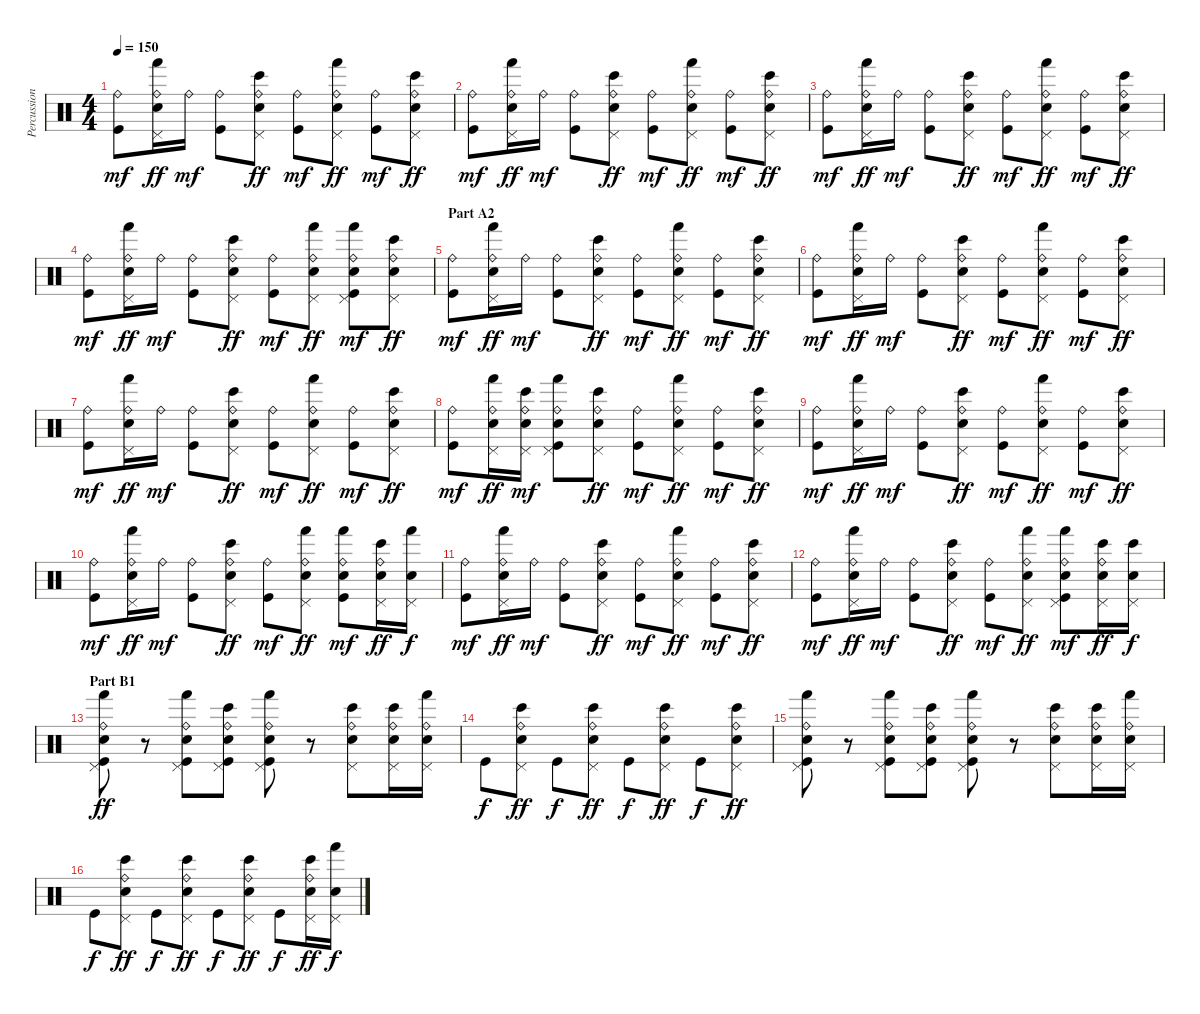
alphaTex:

\track ("Percussion" "Percussion") {instrument percussion}
\staff {score}
\articulation defaults
\ts (4 4)
\tempo 150
\clef neutral
\ks c
("Ride (bell)" "Kick (hit)").8{dy mf} ("Ride (bell)" "Pedal Hi-Hat (hit)" "Hand (hit)" "Electric Snare (hit)").16{dy ff} "Ride (bell)".16{dy mf} ("Ride (bell)" "Kick (hit)").8 ("Ride (bell)" "Pedal Hi-Hat (hit)" "Bongo High (hit)" "Electric Snare (hit)").8{dy ff} ("Ride (bell)" "Kick (hit)").8{dy mf} ("Ride (bell)" "Pedal Hi-Hat (hit)" "Hand (hit)" "Electric Snare (hit)").8{dy ff} ("Ride (bell)" "Kick (hit)").8{dy mf} ("Ride (bell)" "Pedal Hi-Hat (hit)" "Bongo High (hit)" "Electric Snare (hit)").8{dy ff} |
("Ride (bell)" "Kick (hit)").8{dy mf} ("Ride (bell)" "Pedal Hi-Hat (hit)" "Hand (hit)" "Electric Snare (hit)").16{dy ff} "Ride (bell)".16{dy mf} ("Ride (bell)" "Kick (hit)").8 ("Ride (bell)" "Pedal Hi-Hat (hit)" "Bongo High (hit)" "Electric Snare (hit)").8{dy ff} ("Ride (bell)" "Kick (hit)").8{dy mf} ("Ride (bell)" "Pedal Hi-Hat (hit)" "Hand (hit)" "Electric Snare (hit)").8{dy ff} ("Ride (bell)" "Kick (hit)").8{dy mf} ("Ride (bell)" "Pedal Hi-Hat (hit)" "Bongo High (hit)" "Electric Snare (hit)").8{dy ff} |
("Ride (bell)" "Kick (hit)").8{dy mf} ("Ride (bell)" "Pedal Hi-Hat (hit)" "Hand (hit)" "Electric Snare (hit)").16{dy ff} "Ride (bell)".16{dy mf} ("Ride (bell)" "Kick (hit)").8 ("Ride (bell)" "Pedal Hi-Hat (hit)" "Bongo High (hit)" "Electric Snare (hit)").8{dy ff} ("Ride (bell)" "Kick (hit)").8{dy mf} ("Ride (bell)" "Pedal Hi-Hat (hit)" "Hand (hit)" "Electric Snare (hit)").8{dy ff} ("Ride (bell)" "Kick (hit)").8{dy mf} ("Ride (bell)" "Pedal Hi-Hat (hit)" "Bongo High (hit)" "Electric Snare (hit)").8{dy ff} |
("Ride (bell)" "Kick (hit)").8{dy mf} ("Ride (bell)" "Pedal Hi-Hat (hit)" "Hand (hit)" "Electric Snare (hit)").16{dy ff} "Ride (bell)".16{dy mf} ("Ride (bell)" "Kick (hit)").8 ("Ride (bell)" "Pedal Hi-Hat (hit)" "Bongo High (hit)" "Electric Snare (hit)").8{dy ff} ("Ride (bell)" "Kick (hit)").8{dy mf} ("Ride (bell)" "Pedal Hi-Hat (hit)" "Hand (hit)" "Electric Snare (hit)").8{dy ff} ("Ride (bell)" "Pedal Hi-Hat (hit)" "Hand (hit)" "Electric Snare (hit)" "Kick (hit)").8{dy mf} ("Ride (bell)" "Pedal Hi-Hat (hit)" "Bongo High (hit)" "Electric Snare (hit)").8{dy ff} |
\section ("" "Part A2")
("Ride (bell)" "Kick (hit)").8{dy mf} ("Ride (bell)" "Pedal Hi-Hat (hit)" "Hand (hit)" "Electric Snare (hit)").16{dy ff} "Ride (bell)".16{dy mf} ("Ride (bell)" "Kick (hit)").8 ("Ride (bell)" "Pedal Hi-Hat (hit)" "Bongo High (hit)" "Electric Snare (hit)").8{dy ff} ("Ride (bell)" "Kick (hit)").8{dy mf} ("Ride (bell)" "Pedal Hi-Hat (hit)" "Hand (hit)" "Electric Snare (hit)").8{dy ff} ("Ride (bell)" "Kick (hit)").8{dy mf} ("Ride (bell)" "Pedal Hi-Hat (hit)" "Bongo High (hit)" "Electric Snare (hit)").8{dy ff} |
("Ride (bell)" "Kick (hit)").8{dy mf} ("Ride (bell)" "Pedal Hi-Hat (hit)" "Hand (hit)" "Electric Snare (hit)").16{dy ff} "Ride (bell)".16{dy mf} ("Ride (bell)" "Kick (hit)").8 ("Ride (bell)" "Pedal Hi-Hat (hit)" "Bongo High (hit)" "Electric Snare (hit)").8{dy ff} ("Ride (bell)" "Kick (hit)").8{dy mf} ("Ride (bell)" "Pedal Hi-Hat (hit)" "Hand (hit)" "Electric Snare (hit)").8{dy ff} ("Ride (bell)" "Kick (hit)").8{dy mf} ("Ride (bell)" "Pedal Hi-Hat (hit)" "Bongo High (hit)" "Electric Snare (hit)").8{dy ff} |
("Ride (bell)" "Kick (hit)").8{dy mf} ("Ride (bell)" "Pedal Hi-Hat (hit)" "Hand (hit)" "Electric Snare (hit)").16{dy ff} "Ride (bell)".16{dy mf} ("Ride (bell)" "Kick (hit)").8 ("Ride (bell)" "Pedal Hi-Hat (hit)" "Bongo High (hit)" "Electric Snare (hit)").8{dy ff} ("Ride (bell)" "Kick (hit)").8{dy mf} ("Ride (bell)" "Pedal Hi-Hat (hit)" "Hand (hit)" "Electric Snare (hit)").8{dy ff} ("Ride (bell)" "Kick (hit)").8{dy mf} ("Ride (bell)" "Pedal Hi-Hat (hit)" "Bongo High (hit)" "Electric Snare (hit)").8{dy ff} |
("Ride (bell)" "Kick (hit)").8{dy mf} ("Ride (bell)" "Pedal Hi-Hat (hit)" "Hand (hit)" "Electric Snare (hit)").16{dy ff} ("Ride (bell)" "Pedal Hi-Hat (hit)" "Bongo High (hit)" "Electric Snare (hit)").16{dy mf} ("Ride (bell)" "Pedal Hi-Hat (hit)" "Hand (hit)" "Electric Snare (hit)" "Kick (hit)").8 ("Ride (bell)" "Pedal Hi-Hat (hit)" "Bongo High (hit)" "Electric Snare (hit)").8{dy ff} ("Ride (bell)" "Kick (hit)").8{dy mf} ("Ride (bell)" "Pedal Hi-Hat (hit)" "Hand (hit)" "Electric Snare (hit)").8{dy ff} ("Ride (bell)" "Kick (hit)").8{dy mf} ("Ride (bell)" "Pedal Hi-Hat (hit)" "Bongo High (hit)" "Electric Snare (hit)").8{dy ff} |
("Ride (bell)" "Kick (hit)").8{dy mf} ("Ride (bell)" "Pedal Hi-Hat (hit)" "Hand (hit)" "Electric Snare (hit)").16{dy ff} "Ride (bell)".16{dy mf} ("Ride (bell)" "Kick (hit)").8 ("Ride (bell)" "Pedal Hi-Hat (hit)" "Bongo High (hit)" "Electric Snare (hit)").8{dy ff} ("Ride (bell)" "Kick (hit)").8{dy mf} ("Ride (bell)" "Pedal Hi-Hat (hit)" "Hand (hit)" "Electric Snare (hit)").8{dy ff} ("Ride (bell)" "Kick (hit)").8{dy mf} ("Ride (bell)" "Pedal Hi-Hat (hit)" "Bongo High (hit)" "Electric Snare (hit)").8{dy ff} |
("Ride (bell)" "Kick (hit)").8{dy mf} ("Ride (bell)" "Pedal Hi-Hat (hit)" "Hand (hit)" "Electric Snare (hit)").16{dy ff} "Ride (bell)".16{dy mf} ("Ride (bell)" "Kick (hit)").8 ("Ride (bell)" "Pedal Hi-Hat (hit)" "Bongo High (hit)" "Electric Snare (hit)").8{dy ff} ("Ride (bell)" "Kick (hit)").8{dy mf} ("Ride (bell)" "Pedal Hi-Hat (hit)" "Hand (hit)" "Electric Snare (hit)").8{dy ff} ("Ride (bell)" "Hand (hit)" "Electric Snare (hit)" "Kick (hit)").8{dy mf} ("Ride (bell)" "Pedal Hi-Hat (hit)" "Bongo High (hit)" "Electric Snare (hit)").16{dy ff} ("Pedal Hi-Hat (hit)" "Hand (hit)" "Electric Snare (hit)").16{dy f} |
("Ride (bell)" "Kick (hit)").8{dy mf} ("Ride (bell)" "Pedal Hi-Hat (hit)" "Hand (hit)" "Electric Snare (hit)").16{dy ff} "Ride (bell)".16{dy mf} ("Ride (bell)" "Kick (hit)").8 ("Ride (bell)" "Pedal Hi-Hat (hit)" "Bongo High (hit)" "Electric Snare (hit)").8{dy ff} ("Ride (bell)" "Kick (hit)").8{dy mf} ("Ride (bell)" "Pedal Hi-Hat (hit)" "Hand (hit)" "Electric Snare (hit)").8{dy ff} ("Ride (bell)" "Kick (hit)").8{dy mf} ("Ride (bell)" "Pedal Hi-Hat (hit)" "Bongo High (hit)" "Electric Snare (hit)").8{dy ff} |
("Ride (bell)" "Kick (hit)").8{dy mf} ("Ride (bell)" "Pedal Hi-Hat (hit)" "Hand (hit)" "Electric Snare (hit)").16{dy ff} "Ride (bell)".16{dy mf} ("Ride (bell)" "Kick (hit)").8 ("Ride (bell)" "Pedal Hi-Hat (hit)" "Bongo High (hit)" "Electric Snare (hit)").8{dy ff} ("Ride (bell)" "Kick (hit)").8{dy mf} ("Ride (bell)" "Pedal Hi-Hat (hit)" "Hand (hit)" "Electric Snare (hit)").8{dy ff} ("Ride (bell)" "Pedal Hi-Hat (hit)" "Hand (hit)" "Electric Snare (hit)" "Kick (hit)").8{dy mf} ("Ride (bell)" "Pedal Hi-Hat (hit)" "Bongo High (hit)" "Electric Snare (hit)").16{dy ff} ("Pedal Hi-Hat (hit)" "Bongo High (hit)" "Electric Snare (hit)").16{dy f} |
\section ("" "Part B1")
("Ride (bell)" "Pedal Hi-Hat (hit)" "Hand (hit)" "Electric Snare (hit)" "Kick (hit)").8{dy ff} r.8 ("Ride (bell)" "Pedal Hi-Hat (hit)" "Hand (hit)" "Electric Snare (hit)" "Kick (hit)").8 ("Ride (bell)" "Pedal Hi-Hat (hit)" "Bongo High (hit)" "Electric Snare (hit)" "Kick (hit)").8 ("Ride (bell)" "Pedal Hi-Hat (hit)" "Hand (hit)" "Electric Snare (hit)" "Kick (hit)").8 r.8 ("Ride (bell)" "Pedal Hi-Hat (hit)" "Bongo High (hit)" "Electric Snare (hit)").8 ("Ride (bell)" "Pedal Hi-Hat (hit)" "Bongo High (hit)" "Electric Snare (hit)").16 ("Ride (bell)" "Pedal Hi-Hat (hit)" "Hand (hit)" "Electric Snare (hit)").16 |
"Kick (hit)".8{dy f} ("Ride (bell)" "Pedal Hi-Hat (hit)" "Bongo High (hit)" "Electric Snare (hit)").8{dy ff} "Kick (hit)".8{dy f} ("Ride (bell)" "Pedal Hi-Hat (hit)" "Bongo High (hit)" "Electric Snare (hit)").8{dy ff} "Kick (hit)".8{dy f} ("Ride (bell)" "Pedal Hi-Hat (hit)" "Bongo High (hit)" "Electric Snare (hit)").8{dy ff} "Kick (hit)".8{dy f} ("Ride (bell)" "Pedal Hi-Hat (hit)" "Bongo High (hit)" "Electric Snare (hit)").8{dy ff} |
("Ride (bell)" "Pedal Hi-Hat (hit)" "Hand (hit)" "Electric Snare (hit)" "Kick (hit)").8 r.8 ("Ride (bell)" "Pedal Hi-Hat (hit)" "Hand (hit)" "Electric Snare (hit)" "Kick (hit)").8 ("Ride (bell)" "Pedal Hi-Hat (hit)" "Bongo High (hit)" "Electric Snare (hit)" "Kick (hit)").8 ("Ride (bell)" "Pedal Hi-Hat (hit)" "Hand (hit)" "Electric Snare (hit)" "Kick (hit)").8 r.8 ("Ride (bell)" "Pedal Hi-Hat (hit)" "Bongo High (hit)" "Electric Snare (hit)").8 ("Ride (bell)" "Pedal Hi-Hat (hit)" "Bongo High (hit)" "Electric Snare (hit)").16 ("Ride (bell)" "Pedal Hi-Hat (hit)" "Hand (hit)" "Electric Snare (hit)").16 |
"Kick (hit)".8{dy f} ("Ride (bell)" "Pedal Hi-Hat (hit)" "Bongo High (hit)" "Electric Snare (hit)").8{dy ff} "Kick (hit)".8{dy f} ("Ride (bell)" "Pedal Hi-Hat (hit)" "Bongo High (hit)" "Electric Snare (hit)").8{dy ff} "Kick (hit)".8{dy f} ("Ride (bell)" "Pedal Hi-Hat (hit)" "Bongo High (hit)" "Electric Snare (hit)").8{dy ff} "Kick (hit)".8{dy f} ("Ride (bell)" "Pedal Hi-Hat (hit)" "Bongo High (hit)" "Electric Snare (hit)").16{dy ff} ("Pedal Hi-Hat (hit)" "Hand (hit)" "Electric Snare (hit)").16{dy f}
